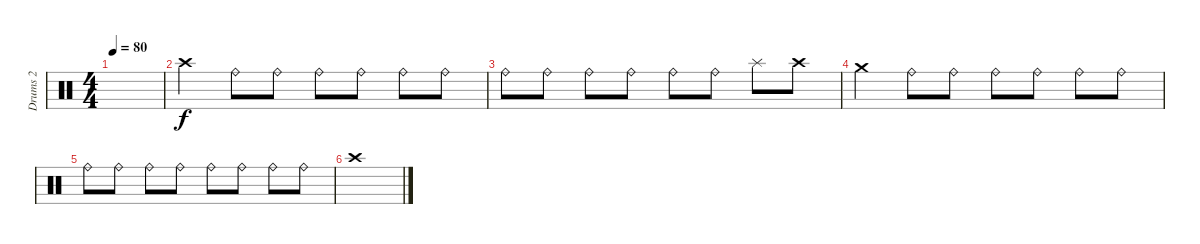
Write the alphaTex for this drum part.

\track ("Drums 2" "Drums 2") {instrument percussion}
\staff {score}
\articulation defaults
\ts (4 4)
\tempo 80
\clef neutral
\ks c
|
"Crash high (hit)".4 "Ride (bell)".8 "Ride (bell)".8 "Ride (bell)".8 "Ride (bell)".8 "Ride (bell)".8 "Ride (bell)".8 |
"Ride (bell)".8 "Ride (bell)".8 "Ride (bell)".8 "Ride (bell)".8 "Ride (bell)".8 "Ride (bell)".8 "Splash (hit)".8 "Crash high (hit)".8 |
"Crash medium (hit)".4 "Ride (bell)".8 "Ride (bell)".8 "Ride (bell)".8 "Ride (bell)".8 "Ride (bell)".8 "Ride (bell)".8 |
"Ride (bell)".8 "Ride (bell)".8 "Ride (bell)".8 "Ride (bell)".8 "Ride (bell)".8 "Ride (bell)".8 "Ride (bell)".8 "Ride (bell)".8 |
"Crash high (hit)".1
